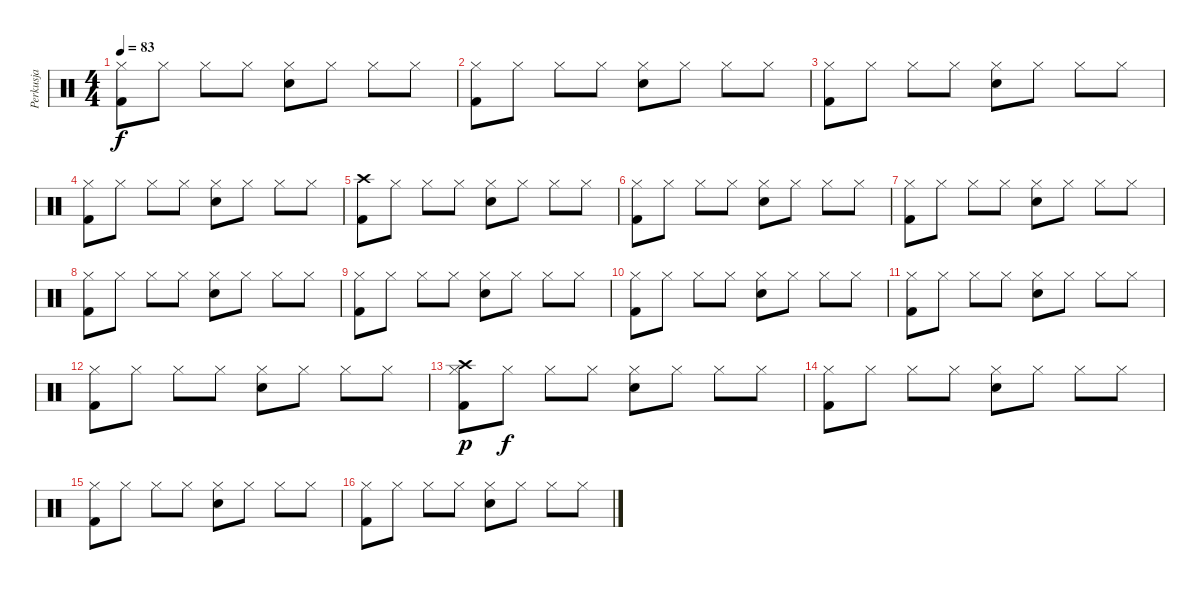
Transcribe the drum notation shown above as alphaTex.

\track ("Perkusja" "Perkusja") {instrument percussion}
\staff {score}
\articulation defaults
\ts (4 4)
\tempo 83
\clef neutral
\ks c
("Hi-Hat (closed)" "Kick (hit) 2").8{dy f} "Hi-Hat (closed)".8 "Hi-Hat (closed)".8 "Hi-Hat (closed)".8 ("Hi-Hat (closed)" "Snare (hit) 2").8 "Hi-Hat (closed)".8 "Hi-Hat (closed)".8 "Hi-Hat (closed)".8 |
("Hi-Hat (closed)" "Kick (hit) 2").8 "Hi-Hat (closed)".8 "Hi-Hat (closed)".8 "Hi-Hat (closed)".8 ("Hi-Hat (closed)" "Snare (hit) 2").8 "Hi-Hat (closed)".8 "Hi-Hat (closed)".8 "Hi-Hat (closed)".8 |
("Hi-Hat (closed)" "Kick (hit) 2").8 "Hi-Hat (closed)".8 "Hi-Hat (closed)".8 "Hi-Hat (closed)".8 ("Hi-Hat (closed)" "Snare (hit) 2").8 "Hi-Hat (closed)".8 "Hi-Hat (closed)".8 "Hi-Hat (closed)".8 |
("Hi-Hat (closed)" "Kick (hit) 2").8 "Hi-Hat (closed)".8 "Hi-Hat (closed)".8 "Hi-Hat (closed)".8 ("Hi-Hat (closed)" "Snare (hit) 2").8 "Hi-Hat (closed)".8 "Hi-Hat (closed)".8 "Hi-Hat (closed)".8 |
("Crash high (hit)" "Kick (hit) 2").8 "Hi-Hat (closed)".8 "Hi-Hat (closed)".8 "Hi-Hat (closed)".8 ("Hi-Hat (closed)" "Snare (hit) 2").8 "Hi-Hat (closed)".8 "Hi-Hat (closed)".8 "Hi-Hat (closed)".8 |
("Hi-Hat (closed)" "Kick (hit) 2").8 "Hi-Hat (closed)".8 "Hi-Hat (closed)".8 "Hi-Hat (closed)".8 ("Hi-Hat (closed)" "Snare (hit) 2").8 "Hi-Hat (closed)".8 "Hi-Hat (closed)".8 "Hi-Hat (closed)".8 |
("Hi-Hat (closed)" "Kick (hit) 2").8 "Hi-Hat (closed)".8 "Hi-Hat (closed)".8 "Hi-Hat (closed)".8 ("Hi-Hat (closed)" "Snare (hit) 2").8 "Hi-Hat (closed)".8 "Hi-Hat (closed)".8 "Hi-Hat (closed)".8 |
("Hi-Hat (closed)" "Kick (hit) 2").8 "Hi-Hat (closed)".8 "Hi-Hat (closed)".8 "Hi-Hat (closed)".8 ("Hi-Hat (closed)" "Snare (hit) 2").8 "Hi-Hat (closed)".8 "Hi-Hat (closed)".8 "Hi-Hat (closed)".8 |
("Hi-Hat (closed)" "Kick (hit) 2").8 "Hi-Hat (closed)".8 "Hi-Hat (closed)".8 "Hi-Hat (closed)".8 ("Hi-Hat (closed)" "Snare (hit) 2").8 "Hi-Hat (closed)".8 "Hi-Hat (closed)".8 "Hi-Hat (closed)".8 |
("Hi-Hat (closed)" "Kick (hit) 2").8 "Hi-Hat (closed)".8 "Hi-Hat (closed)".8 "Hi-Hat (closed)".8 ("Hi-Hat (closed)" "Snare (hit) 2").8 "Hi-Hat (closed)".8 "Hi-Hat (closed)".8 "Hi-Hat (closed)".8 |
("Hi-Hat (closed)" "Kick (hit) 2").8 "Hi-Hat (closed)".8 "Hi-Hat (closed)".8 "Hi-Hat (closed)".8 ("Hi-Hat (closed)" "Snare (hit) 2").8 "Hi-Hat (closed)".8 "Hi-Hat (closed)".8 "Hi-Hat (closed)".8 |
("Hi-Hat (closed)" "Kick (hit) 2").8 "Hi-Hat (closed)".8 "Hi-Hat (closed)".8 "Hi-Hat (closed)".8 ("Hi-Hat (closed)" "Snare (hit) 2").8 "Hi-Hat (closed)".8 "Hi-Hat (closed)".8 "Hi-Hat (closed)".8 |
("Hi-Hat (closed)" "Crash high (hit)" "Kick (hit) 2").8{dy p} "Hi-Hat (closed)".8{dy f} "Hi-Hat (closed)".8 "Hi-Hat (closed)".8 ("Hi-Hat (closed)" "Snare (hit) 2").8 "Hi-Hat (closed)".8 "Hi-Hat (closed)".8 "Hi-Hat (closed)".8 |
("Hi-Hat (closed)" "Kick (hit) 2").8 "Hi-Hat (closed)".8 "Hi-Hat (closed)".8 "Hi-Hat (closed)".8 ("Hi-Hat (closed)" "Snare (hit) 2").8 "Hi-Hat (closed)".8 "Hi-Hat (closed)".8 "Hi-Hat (closed)".8 |
("Hi-Hat (closed)" "Kick (hit) 2").8 "Hi-Hat (closed)".8 "Hi-Hat (closed)".8 "Hi-Hat (closed)".8 ("Hi-Hat (closed)" "Snare (hit) 2").8 "Hi-Hat (closed)".8 "Hi-Hat (closed)".8 "Hi-Hat (closed)".8 |
("Hi-Hat (closed)" "Kick (hit) 2").8 "Hi-Hat (closed)".8 "Hi-Hat (closed)".8 "Hi-Hat (closed)".8 ("Hi-Hat (closed)" "Snare (hit) 2").8 "Hi-Hat (closed)".8 "Hi-Hat (closed)".8 "Hi-Hat (closed)".8
